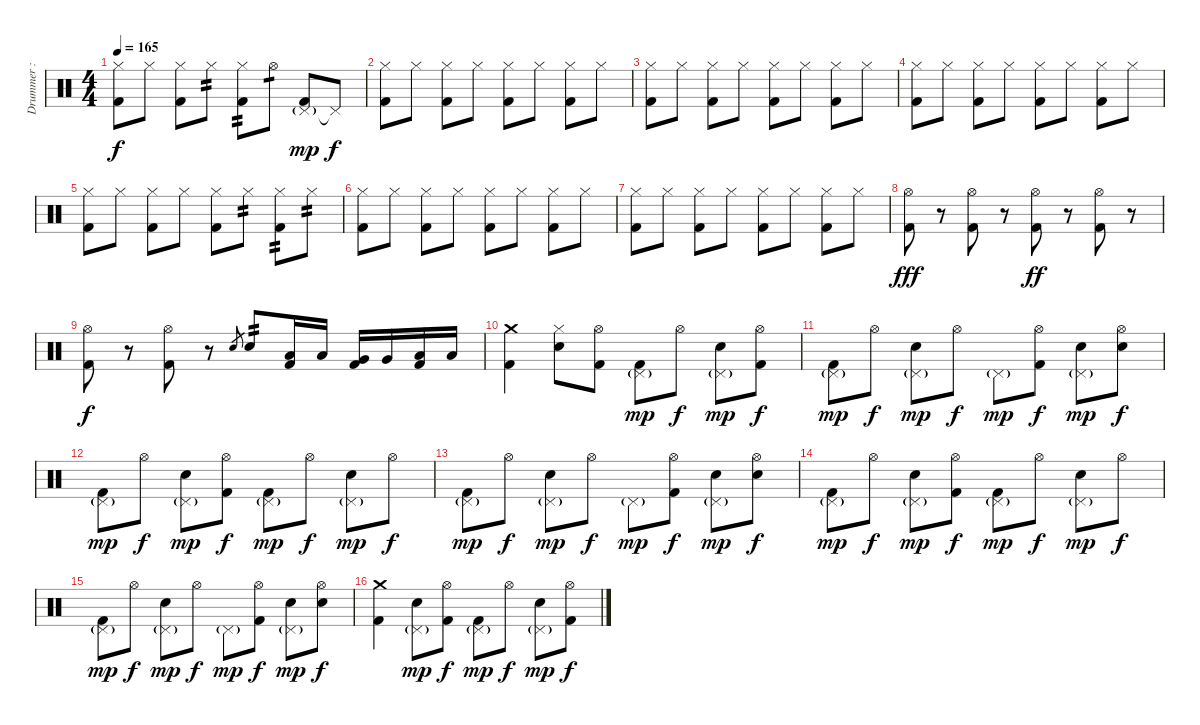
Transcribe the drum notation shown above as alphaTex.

\track ("Drummer : Tainaka Ritsu - Chan" "Drummer : ") {instrument percussion}
\staff {score}
\articulation defaults
\ts (4 4)
\tempo 165
\clef neutral
\ks c
("Hi-Hat (closed)" "Kick (hit) 2").8{dy f} "Hi-Hat (closed)".8 ("Hi-Hat (closed)" "Kick (hit) 2").8 "Hi-Hat (closed)".8{tp 2} ("Hi-Hat (closed)" "Kick (hit) 2").8{tp 2} "Hi-Hat (open)".8{tp 1} ("Pedal Hi-Hat (hit)"{g} "Kick (hit) 2").8{dy mp} "Pedal Hi-Hat (hit)"{t}.8{dy f} |
("Hi-Hat (closed)" "Kick (hit) 2").8 "Hi-Hat (closed)".8 ("Hi-Hat (closed)" "Kick (hit) 2").8 "Hi-Hat (closed)".8 ("Hi-Hat (closed)" "Kick (hit) 2").8 "Hi-Hat (closed)".8 ("Hi-Hat (closed)" "Kick (hit) 2").8 "Hi-Hat (closed)".8 |
("Hi-Hat (closed)" "Kick (hit) 2").8 "Hi-Hat (closed)".8 ("Hi-Hat (closed)" "Kick (hit) 2").8 "Hi-Hat (closed)".8 ("Hi-Hat (closed)" "Kick (hit) 2").8 "Hi-Hat (closed)".8 ("Hi-Hat (closed)" "Kick (hit) 2").8 "Hi-Hat (closed)".8 |
("Hi-Hat (closed)" "Kick (hit) 2").8 "Hi-Hat (closed)".8 ("Hi-Hat (closed)" "Kick (hit) 2").8 "Hi-Hat (closed)".8 ("Hi-Hat (closed)" "Kick (hit) 2").8 "Hi-Hat (closed)".8 ("Hi-Hat (closed)" "Kick (hit) 2").8 "Hi-Hat (closed)".8 |
("Hi-Hat (closed)" "Kick (hit) 2").8 "Hi-Hat (closed)".8 ("Hi-Hat (closed)" "Kick (hit) 2").8 "Hi-Hat (closed)".8 ("Hi-Hat (closed)" "Kick (hit) 2").8 "Hi-Hat (closed)".8{tp 2} ("Hi-Hat (closed)" "Kick (hit) 2").8{tp 2} "Hi-Hat (closed)".8{tp 2} |
("Hi-Hat (closed)" "Kick (hit) 2").8 "Hi-Hat (closed)".8 ("Hi-Hat (closed)" "Kick (hit) 2").8 "Hi-Hat (closed)".8 ("Hi-Hat (closed)" "Kick (hit) 2").8 "Hi-Hat (closed)".8 ("Hi-Hat (closed)" "Kick (hit) 2").8 "Hi-Hat (closed)".8 |
("Hi-Hat (closed)" "Kick (hit) 2").8 "Hi-Hat (closed)".8 ("Hi-Hat (closed)" "Kick (hit) 2").8 "Hi-Hat (closed)".8 ("Hi-Hat (closed)" "Kick (hit) 2").8 "Hi-Hat (closed)".8 ("Hi-Hat (closed)" "Kick (hit) 2").8 "Hi-Hat (closed)".8 |
("Hi-Hat (open)" "Kick (hit) 2").8{dy fff} r.8 ("Hi-Hat (open)" "Kick (hit) 2").8 r.8 ("Hi-Hat (open)" "Kick (hit) 2").8{dy ff} r.8 ("Hi-Hat (open)" "Kick (hit) 2").8 r.8 |
("Hi-Hat (open)" "Kick (hit) 2").8{dy f} r.8 ("Hi-Hat (open)" "Kick (hit) 2").8 r.8 "Electric Snare (hit)".8{gr} "Electric Snare (hit)".8{tp 2} ("Low Tom (hit)" "Kick (hit) 2").16 "Low Tom (hit)".16 ("Very Low Tom (hit)" "Kick (hit) 2").16 "Very Low Tom (hit)".16 ("Low Floor Tom (hit)" "Kick (hit) 2").16 "Low Floor Tom (hit)".16 |
("Crash medium (hit)" "Kick (hit) 2").4 ("Hi-Hat (closed)" "Electric Snare (hit)").8 ("Hi-Hat (open)" "Kick (hit) 2").8 ("Pedal Hi-Hat (hit)"{g} "Kick (hit) 2").8{dy mp} "Hi-Hat (open)".8{dy f} ("Pedal Hi-Hat (hit)"{g} "Electric Snare (hit)").8{dy mp} ("Hi-Hat (open)" "Kick (hit) 2").8{dy f} |
("Pedal Hi-Hat (hit)"{g} "Kick (hit) 2").8{dy mp} "Hi-Hat (open)".8{dy f} ("Pedal Hi-Hat (hit)"{g} "Electric Snare (hit)").8{dy mp} "Hi-Hat (open)".8{dy f} "Pedal Hi-Hat (hit)"{g}.8{dy mp} ("Hi-Hat (open)" "Kick (hit) 2").8{dy f} ("Pedal Hi-Hat (hit)"{g} "Electric Snare (hit)").8{dy mp} ("Hi-Hat (open)" "Electric Snare (hit)").8{dy f} |
("Pedal Hi-Hat (hit)"{g} "Kick (hit) 2").8{dy mp} "Hi-Hat (open)".8{dy f} ("Pedal Hi-Hat (hit)"{g} "Electric Snare (hit)").8{dy mp} ("Hi-Hat (open)" "Kick (hit) 2").8{dy f} ("Pedal Hi-Hat (hit)"{g} "Kick (hit) 2").8{dy mp} "Hi-Hat (open)".8{dy f} ("Pedal Hi-Hat (hit)"{g} "Electric Snare (hit)").8{dy mp} "Hi-Hat (open)".8{dy f} |
("Pedal Hi-Hat (hit)"{g} "Kick (hit) 2").8{dy mp} "Hi-Hat (open)".8{dy f} ("Pedal Hi-Hat (hit)"{g} "Electric Snare (hit)").8{dy mp} "Hi-Hat (open)".8{dy f} "Pedal Hi-Hat (hit)"{g}.8{dy mp} ("Hi-Hat (open)" "Kick (hit) 2").8{dy f} ("Pedal Hi-Hat (hit)"{g} "Electric Snare (hit)").8{dy mp} ("Hi-Hat (open)" "Electric Snare (hit)").8{dy f} |
("Pedal Hi-Hat (hit)"{g} "Kick (hit) 2").8{dy mp} "Hi-Hat (open)".8{dy f} ("Pedal Hi-Hat (hit)"{g} "Electric Snare (hit)").8{dy mp} ("Hi-Hat (open)" "Kick (hit) 2").8{dy f} ("Pedal Hi-Hat (hit)"{g} "Kick (hit) 2").8{dy mp} "Hi-Hat (open)".8{dy f} ("Pedal Hi-Hat (hit)"{g} "Electric Snare (hit)").8{dy mp} "Hi-Hat (open)".8{dy f} |
("Pedal Hi-Hat (hit)"{g} "Kick (hit) 2").8{dy mp} "Hi-Hat (open)".8{dy f} ("Pedal Hi-Hat (hit)"{g} "Electric Snare (hit)").8{dy mp} "Hi-Hat (open)".8{dy f} "Pedal Hi-Hat (hit)"{g}.8{dy mp} ("Hi-Hat (open)" "Kick (hit) 2").8{dy f} ("Pedal Hi-Hat (hit)"{g} "Electric Snare (hit)").8{dy mp} ("Hi-Hat (open)" "Electric Snare (hit)").8{dy f} |
("Crash medium (hit)" "Kick (hit) 2").4 ("Pedal Hi-Hat (hit)"{g} "Electric Snare (hit)").8{dy mp} ("Hi-Hat (open)" "Kick (hit) 2").8{dy f} ("Pedal Hi-Hat (hit)"{g} "Kick (hit) 2").8{dy mp} "Hi-Hat (open)".8{dy f} ("Pedal Hi-Hat (hit)"{g} "Electric Snare (hit)").8{dy mp} ("Hi-Hat (open)" "Kick (hit) 2").8{dy f}
